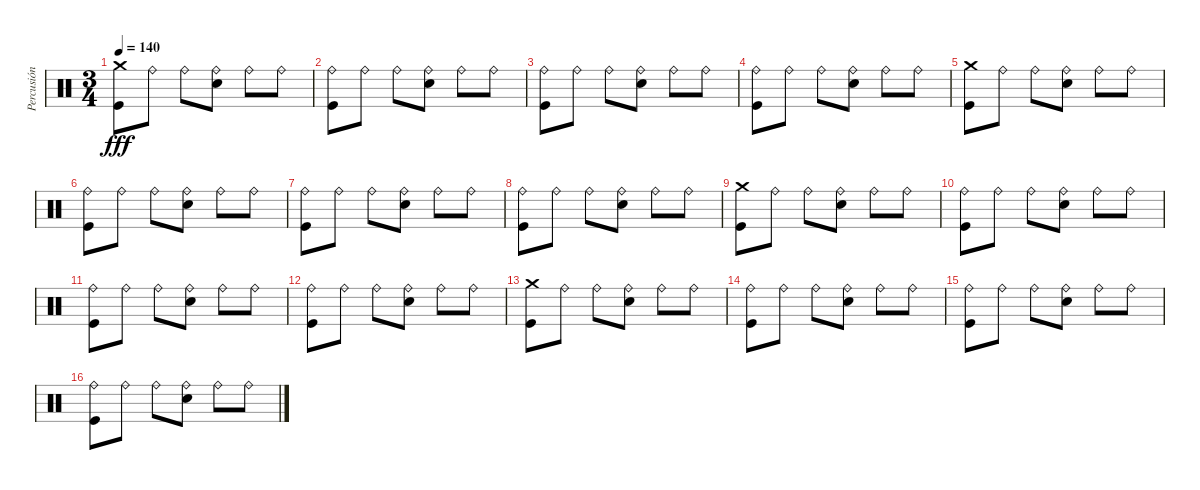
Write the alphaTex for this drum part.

\track ("Percusión" "Percusión") {instrument percussion}
\staff {score}
\articulation defaults
\ts (3 4)
\tempo 140
\clef neutral
\ks c
("Crash medium (hit)" "Kick (hit)").8{dy fff} "Ride (bell)".8 "Ride (bell)".8 ("Ride (bell)" "Snare (hit) 2").8 "Ride (bell)".8 "Ride (bell)".8 |
("Ride (bell)" "Kick (hit)").8 "Ride (bell)".8 "Ride (bell)".8 ("Ride (bell)" "Snare (hit) 2").8 "Ride (bell)".8 "Ride (bell)".8 |
("Ride (bell)" "Kick (hit)").8 "Ride (bell)".8 "Ride (bell)".8 ("Ride (bell)" "Snare (hit) 2").8 "Ride (bell)".8 "Ride (bell)".8 |
("Ride (bell)" "Kick (hit)").8 "Ride (bell)".8 "Ride (bell)".8 ("Ride (bell)" "Snare (hit) 2").8 "Ride (bell)".8 "Ride (bell)".8 |
("Crash medium (hit)" "Kick (hit)").8 "Ride (bell)".8 "Ride (bell)".8 ("Ride (bell)" "Snare (hit) 2").8 "Ride (bell)".8 "Ride (bell)".8 |
("Ride (bell)" "Kick (hit)").8 "Ride (bell)".8 "Ride (bell)".8 ("Ride (bell)" "Snare (hit) 2").8 "Ride (bell)".8 "Ride (bell)".8 |
("Ride (bell)" "Kick (hit)").8 "Ride (bell)".8 "Ride (bell)".8 ("Ride (bell)" "Snare (hit) 2").8 "Ride (bell)".8 "Ride (bell)".8 |
("Ride (bell)" "Kick (hit)").8 "Ride (bell)".8 "Ride (bell)".8 ("Ride (bell)" "Snare (hit) 2").8 "Ride (bell)".8 "Ride (bell)".8 |
("Crash medium (hit)" "Kick (hit)").8 "Ride (bell)".8 "Ride (bell)".8 ("Ride (bell)" "Snare (hit) 2").8 "Ride (bell)".8 "Ride (bell)".8 |
("Ride (bell)" "Kick (hit)").8 "Ride (bell)".8 "Ride (bell)".8 ("Ride (bell)" "Snare (hit) 2").8 "Ride (bell)".8 "Ride (bell)".8 |
("Ride (bell)" "Kick (hit)").8 "Ride (bell)".8 "Ride (bell)".8 ("Ride (bell)" "Snare (hit) 2").8 "Ride (bell)".8 "Ride (bell)".8 |
("Ride (bell)" "Kick (hit)").8 "Ride (bell)".8 "Ride (bell)".8 ("Ride (bell)" "Snare (hit) 2").8 "Ride (bell)".8 "Ride (bell)".8 |
("Crash medium (hit)" "Kick (hit)").8 "Ride (bell)".8 "Ride (bell)".8 ("Ride (bell)" "Snare (hit) 2").8 "Ride (bell)".8 "Ride (bell)".8 |
("Ride (bell)" "Kick (hit)").8 "Ride (bell)".8 "Ride (bell)".8 ("Ride (bell)" "Snare (hit) 2").8 "Ride (bell)".8 "Ride (bell)".8 |
("Ride (bell)" "Kick (hit)").8 "Ride (bell)".8 "Ride (bell)".8 ("Ride (bell)" "Snare (hit) 2").8 "Ride (bell)".8 "Ride (bell)".8 |
("Ride (bell)" "Kick (hit)").8 "Ride (bell)".8 "Ride (bell)".8 ("Ride (bell)" "Snare (hit) 2").8 "Ride (bell)".8 "Ride (bell)".8
